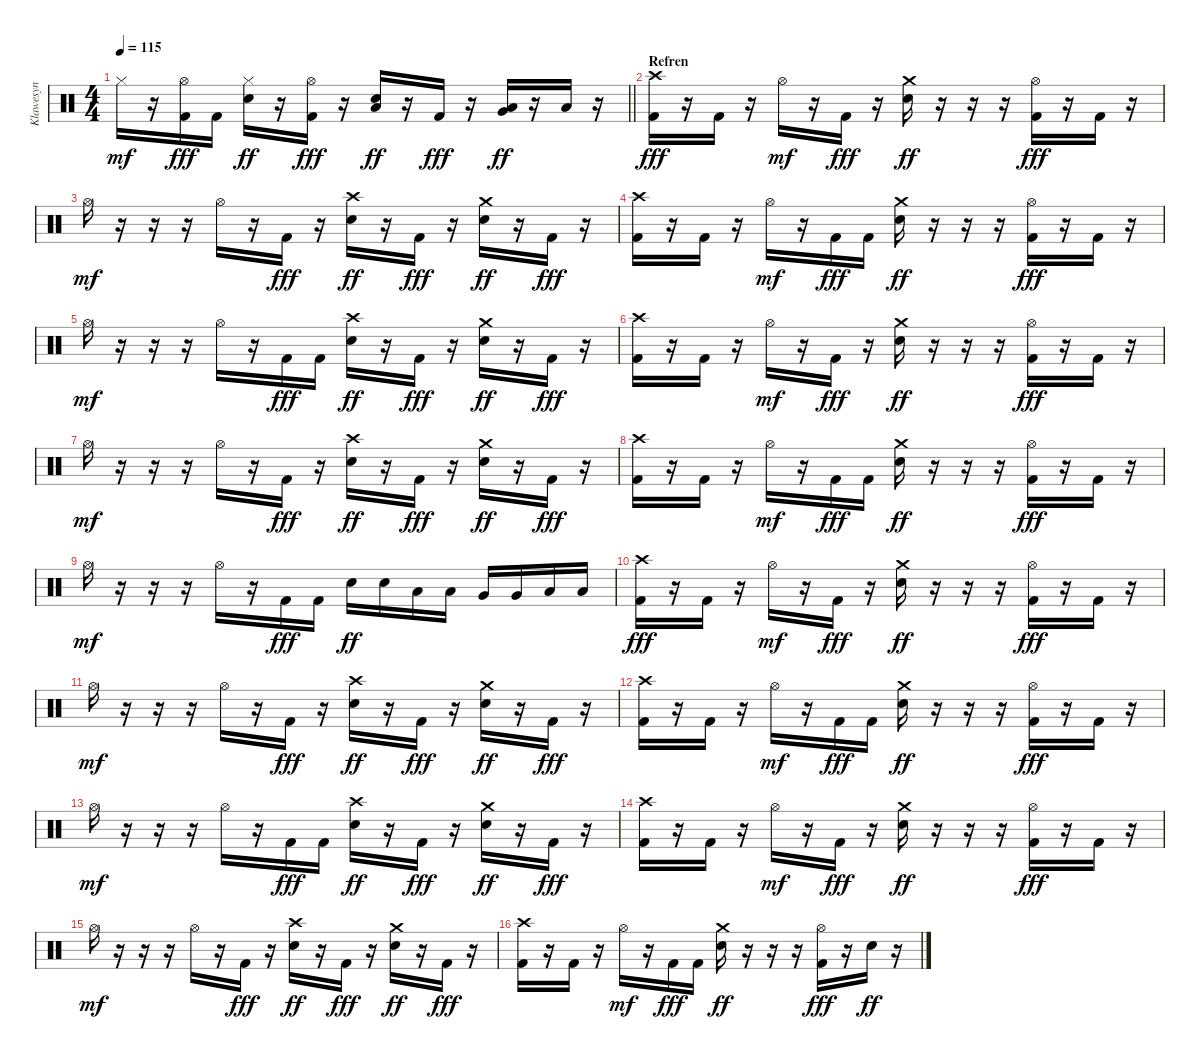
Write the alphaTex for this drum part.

\track ("Klawesyn" "Klawesyn") {instrument percussion}
\staff {score}
\articulation defaults
\ts (4 4)
\tempo 115
\clef neutral
\barLineRight lightlight
\ks c "Hi-Hat (closed)".16{dy mf}
r.16 ("Hi-Hat (open)" "Kick (hit) 2").16{dy fff} "Kick (hit) 2".16 ("Hi-Hat (closed)" "Electric Snare (hit)").16{dy ff} r.16 ("Hi-Hat (open)" "Kick (hit) 2").16{dy fff} r.16 ("Low Tom (hit)" "Electric Snare (hit)").16{dy ff} r.16 "Kick (hit) 2".16{dy fff} r.16 ("Very Low Tom (hit)" "Low Tom (hit)").16{dy ff} r.16 "Low Floor Tom (hit)".16 r.16 |
\section ("" "Refren")
("Crash high (hit)" "Kick (hit) 2").16{dy fff} r.16 "Kick (hit) 2".16 r.16 "Hi-Hat (open)".16{dy mf} r.16 "Kick (hit) 2".16{dy fff} r.16 ("Crash medium (hit)" "Electric Snare (hit)").16{dy ff} r.16 r.16 r.16 ("Hi-Hat (open)" "Kick (hit) 2").16{dy fff} r.16 "Kick (hit) 2".16 r.16 |
"Hi-Hat (open)".16{dy mf} r.16 r.16 r.16 "Hi-Hat (open)".16 r.16 "Kick (hit) 2".16{dy fff} r.16 ("Crash high (hit)" "Electric Snare (hit)").16{dy ff} r.16 "Kick (hit) 2".16{dy fff} r.16 ("Crash medium (hit)" "Electric Snare (hit)").16{dy ff} r.16 "Kick (hit) 2".16{dy fff} r.16 |
("Crash high (hit)" "Kick (hit) 2").16 r.16 "Kick (hit) 2".16 r.16 "Hi-Hat (open)".16{dy mf} r.16 "Kick (hit) 2".16{dy fff} "Kick (hit) 2".16 ("Crash medium (hit)" "Electric Snare (hit)").16{dy ff} r.16 r.16 r.16 ("Hi-Hat (open)" "Kick (hit) 2").16{dy fff} r.16 "Kick (hit) 2".16 r.16 |
"Hi-Hat (open)".16{dy mf} r.16 r.16 r.16 "Hi-Hat (open)".16 r.16 "Kick (hit) 2".16{dy fff} "Kick (hit) 2".16 ("Crash high (hit)" "Electric Snare (hit)").16{dy ff} r.16 "Kick (hit) 2".16{dy fff} r.16 ("Crash medium (hit)" "Electric Snare (hit)").16{dy ff} r.16 "Kick (hit) 2".16{dy fff} r.16 |
("Crash high (hit)" "Kick (hit) 2").16 r.16 "Kick (hit) 2".16 r.16 "Hi-Hat (open)".16{dy mf} r.16 "Kick (hit) 2".16{dy fff} r.16 ("Crash medium (hit)" "Electric Snare (hit)").16{dy ff} r.16 r.16 r.16 ("Hi-Hat (open)" "Kick (hit) 2").16{dy fff} r.16 "Kick (hit) 2".16 r.16 |
"Hi-Hat (open)".16{dy mf} r.16 r.16 r.16 "Hi-Hat (open)".16 r.16 "Kick (hit) 2".16{dy fff} r.16 ("Crash high (hit)" "Electric Snare (hit)").16{dy ff} r.16 "Kick (hit) 2".16{dy fff} r.16 ("Crash medium (hit)" "Electric Snare (hit)").16{dy ff} r.16 "Kick (hit) 2".16{dy fff} r.16 |
("Crash high (hit)" "Kick (hit) 2").16 r.16 "Kick (hit) 2".16 r.16 "Hi-Hat (open)".16{dy mf} r.16 "Kick (hit) 2".16{dy fff} "Kick (hit) 2".16 ("Crash medium (hit)" "Electric Snare (hit)").16{dy ff} r.16 r.16 r.16 ("Hi-Hat (open)" "Kick (hit) 2").16{dy fff} r.16 "Kick (hit) 2".16 r.16 |
"Hi-Hat (open)".16{dy mf} r.16 r.16 r.16 "Hi-Hat (open)".16 r.16 "Kick (hit) 2".16{dy fff} "Kick (hit) 2".16 "Electric Snare (hit)".16{dy ff} "Electric Snare (hit)".16 "Low Tom (hit)".16 "Low Tom (hit)".16 "Very Low Tom (hit)".16 "Very Low Tom (hit)".16 "Low Floor Tom (hit)".16 "Low Floor Tom (hit)".16 |
("Crash high (hit)" "Kick (hit) 2").16{dy fff} r.16 "Kick (hit) 2".16 r.16 "Hi-Hat (open)".16{dy mf} r.16 "Kick (hit) 2".16{dy fff} r.16 ("Crash medium (hit)" "Electric Snare (hit)").16{dy ff} r.16 r.16 r.16 ("Hi-Hat (open)" "Kick (hit) 2").16{dy fff} r.16 "Kick (hit) 2".16 r.16 |
"Hi-Hat (open)".16{dy mf} r.16 r.16 r.16 "Hi-Hat (open)".16 r.16 "Kick (hit) 2".16{dy fff} r.16 ("Crash high (hit)" "Electric Snare (hit)").16{dy ff} r.16 "Kick (hit) 2".16{dy fff} r.16 ("Crash medium (hit)" "Electric Snare (hit)").16{dy ff} r.16 "Kick (hit) 2".16{dy fff} r.16 |
("Crash high (hit)" "Kick (hit) 2").16 r.16 "Kick (hit) 2".16 r.16 "Hi-Hat (open)".16{dy mf} r.16 "Kick (hit) 2".16{dy fff} "Kick (hit) 2".16 ("Crash medium (hit)" "Electric Snare (hit)").16{dy ff} r.16 r.16 r.16 ("Hi-Hat (open)" "Kick (hit) 2").16{dy fff} r.16 "Kick (hit) 2".16 r.16 |
"Hi-Hat (open)".16{dy mf} r.16 r.16 r.16 "Hi-Hat (open)".16 r.16 "Kick (hit) 2".16{dy fff} "Kick (hit) 2".16 ("Crash high (hit)" "Electric Snare (hit)").16{dy ff} r.16 "Kick (hit) 2".16{dy fff} r.16 ("Crash medium (hit)" "Electric Snare (hit)").16{dy ff} r.16 "Kick (hit) 2".16{dy fff} r.16 |
("Crash high (hit)" "Kick (hit) 2").16 r.16 "Kick (hit) 2".16 r.16 "Hi-Hat (open)".16{dy mf} r.16 "Kick (hit) 2".16{dy fff} r.16 ("Crash medium (hit)" "Electric Snare (hit)").16{dy ff} r.16 r.16 r.16 ("Hi-Hat (open)" "Kick (hit) 2").16{dy fff} r.16 "Kick (hit) 2".16 r.16 |
"Hi-Hat (open)".16{dy mf} r.16 r.16 r.16 "Hi-Hat (open)".16 r.16 "Kick (hit) 2".16{dy fff} r.16 ("Crash high (hit)" "Electric Snare (hit)").16{dy ff} r.16 "Kick (hit) 2".16{dy fff} r.16 ("Crash medium (hit)" "Electric Snare (hit)").16{dy ff} r.16 "Kick (hit) 2".16{dy fff} r.16 |
("Crash high (hit)" "Kick (hit) 2").16 r.16 "Kick (hit) 2".16 r.16 "Hi-Hat (open)".16{dy mf} r.16 "Kick (hit) 2".16{dy fff} "Kick (hit) 2".16 ("Crash medium (hit)" "Electric Snare (hit)").16{dy ff} r.16 r.16 r.16 ("Hi-Hat (open)" "Kick (hit) 2").16{dy fff} r.16 "Electric Snare (hit)".16{dy ff} r.16
